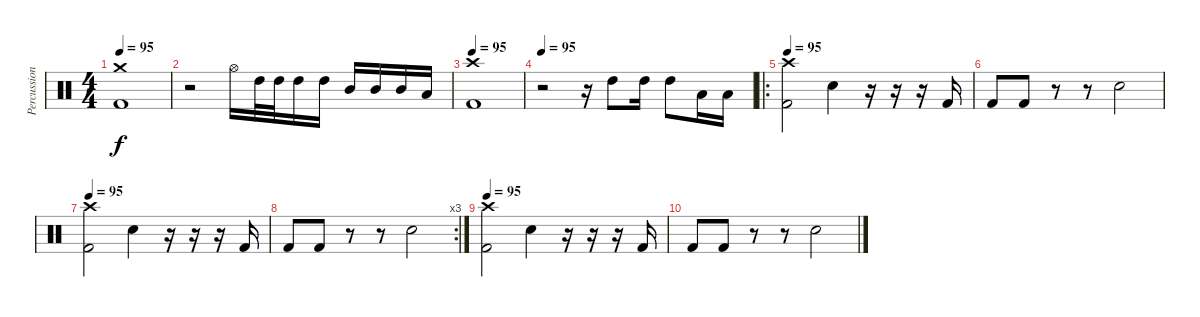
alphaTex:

\track ("Percussions" "Percussion") {instrument percussion}
\staff {score}
\articulation defaults
\ts (4 4)
\tempo 95
\clef neutral
\ks c
("Crash medium (hit)" "Kick (hit) 2").1{dy f} |
r.2 "Hi-Hat (open)".16 "High Tom (hit)".32 "High Tom (hit)".32 "High Tom (hit)".16 "High Tom (hit)".16 "Mid Tom (hit)".16 "Mid Tom (hit)".16 "Mid Tom (hit)".16 "Low Tom (hit)".16 |
\tempo 95
("Crash high (hit)" "Kick (hit) 2").1 |
\tempo 95
r.2 r.16 "High Tom (hit)".8 "High Tom (hit)".16 "High Tom (hit)".8 "Low Tom (hit)".16 "Low Tom (hit)".16 |
\ro
\tempo 95
("Crash high (hit)" "Kick (hit) 2").2 "Electric Snare (hit)".4 r.16 r.16 r.16 "Kick (hit) 2".16 |
"Kick (hit) 2".8 "Kick (hit) 2".8 r.8 r.8 "Electric Snare (hit)".2 |
\tempo 95
("Crash high (hit)" "Kick (hit) 2").2 "Electric Snare (hit)".4 r.16 r.16 r.16 "Kick (hit) 2".16 |
\rc 3 "Kick (hit) 2".8 "Kick (hit) 2".8
r.8 r.8 "Electric Snare (hit)".2 |
\tempo 95
("Crash high (hit)" "Kick (hit) 2").2 "Electric Snare (hit)".4 r.16 r.16 r.16 "Kick (hit) 2".16 |
"Kick (hit) 2".8 "Kick (hit) 2".8 r.8 r.8 "Electric Snare (hit)".2
